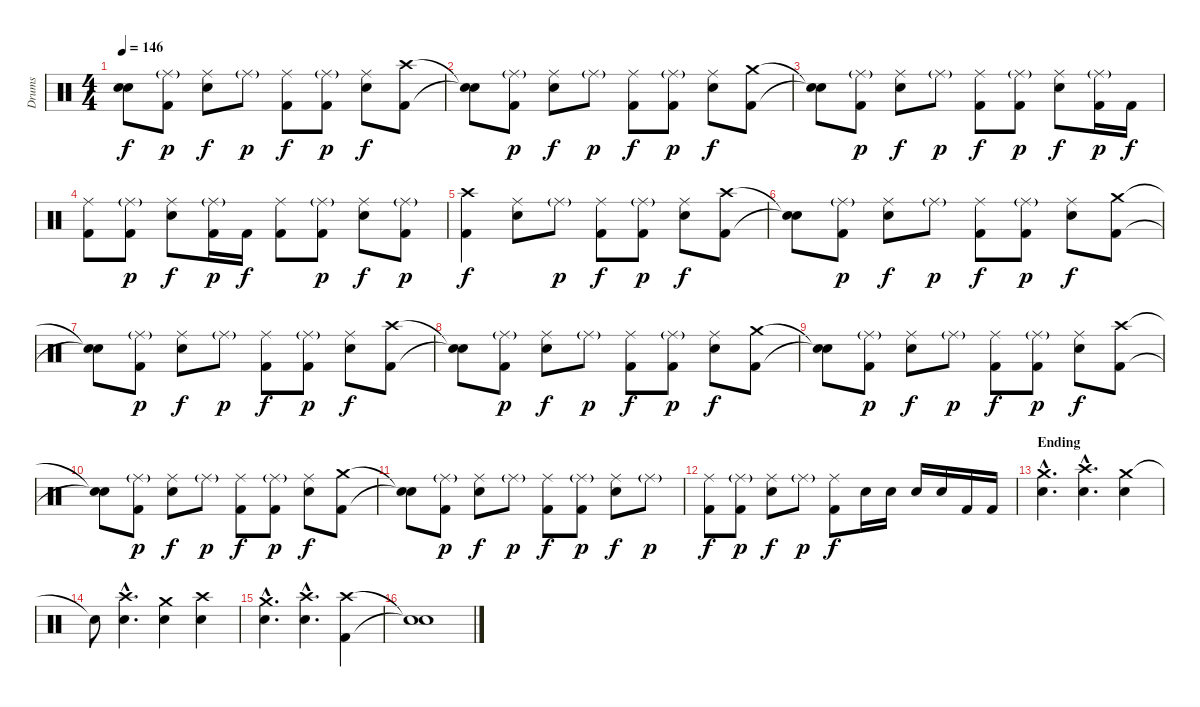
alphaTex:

\track ("Drums" "Drums") {instrument percussion}
\staff {score}
\articulation defaults
\ts (4 4)
\tempo 146
\clef neutral
\ks c
("Snare (hit)"{t} "Snare (hit)"{t}).8{dy f} ("Ride (middle)"{g} "Kick (hit) 2").8{dy p} ("Ride (middle)" "Snare (hit) 2").8{dy f} "Ride (middle)"{g}.8{dy p} ("Ride (middle)" "Kick (hit) 2").8{dy f} ("Ride (middle)"{g} "Kick (hit) 2").8{dy p} ("Ride (middle)" "Snare (hit) 2").8{dy f} ("Crash high (hit)" "Kick (hit) 2").8 |
("Snare (hit)"{t} "Snare (hit)"{t}).8 ("Ride (middle)"{g} "Kick (hit) 2").8{dy p} ("Ride (middle)" "Snare (hit) 2").8{dy f} "Ride (middle)"{g}.8{dy p} ("Ride (middle)" "Kick (hit) 2").8{dy f} ("Ride (middle)"{g} "Kick (hit) 2").8{dy p} ("Ride (middle)" "Snare (hit) 2").8{dy f} ("Crash medium (hit)" "Kick (hit) 2").8 |
("Snare (hit)"{t} "Snare (hit)"{t}).8 ("Ride (middle)"{g} "Kick (hit) 2").8{dy p} ("Ride (middle)" "Snare (hit) 2").8{dy f} "Ride (middle)"{g}.8{dy p} ("Ride (middle)" "Kick (hit) 2").8{dy f} ("Ride (middle)"{g} "Kick (hit) 2").8{dy p} ("Ride (middle)" "Snare (hit) 2").8{dy f} ("Ride (middle)"{g} "Kick (hit) 2").16{dy p} "Kick (hit) 2".16{dy f} |
("Ride (middle)" "Kick (hit) 2").8 ("Ride (middle)"{g} "Kick (hit) 2").8{dy p} ("Ride (middle)" "Snare (hit) 2").8{dy f} ("Ride (middle)"{g} "Kick (hit) 2").16{dy p} "Kick (hit) 2".16{dy f} ("Ride (middle)" "Kick (hit) 2").8 ("Ride (middle)"{g} "Kick (hit) 2").8{dy p} ("Ride (middle)" "Snare (hit) 2").8{dy f} ("Ride (middle)"{g} "Kick (hit) 2").8{dy p} |
("Crash high (hit)" "Kick (hit) 2").4{dy f} ("Ride (middle)" "Snare (hit) 2").8 "Ride (middle)"{g}.8{dy p} ("Ride (middle)" "Kick (hit) 2").8{dy f} ("Ride (middle)"{g} "Kick (hit) 2").8{dy p} ("Ride (middle)" "Snare (hit) 2").8{dy f} ("Crash high (hit)" "Kick (hit) 2").8 |
("Snare (hit)"{t} "Snare (hit)"{t}).8 ("Ride (middle)"{g} "Kick (hit) 2").8{dy p} ("Ride (middle)" "Snare (hit) 2").8{dy f} "Ride (middle)"{g}.8{dy p} ("Ride (middle)" "Kick (hit) 2").8{dy f} ("Ride (middle)"{g} "Kick (hit) 2").8{dy p} ("Ride (middle)" "Snare (hit) 2").8{dy f} ("Crash medium (hit)" "Kick (hit) 2").8 |
("Snare (hit)"{t} "Snare (hit)"{t}).8 ("Ride (middle)"{g} "Kick (hit) 2").8{dy p} ("Ride (middle)" "Snare (hit) 2").8{dy f} "Ride (middle)"{g}.8{dy p} ("Ride (middle)" "Kick (hit) 2").8{dy f} ("Ride (middle)"{g} "Kick (hit) 2").8{dy p} ("Ride (middle)" "Snare (hit) 2").8{dy f} ("Crash high (hit)" "Kick (hit) 2").8 |
("Snare (hit)"{t} "Snare (hit)"{t}).8 ("Ride (middle)"{g} "Kick (hit) 2").8{dy p} ("Ride (middle)" "Snare (hit) 2").8{dy f} "Ride (middle)"{g}.8{dy p} ("Ride (middle)" "Kick (hit) 2").8{dy f} ("Ride (middle)"{g} "Kick (hit) 2").8{dy p} ("Ride (middle)" "Snare (hit) 2").8{dy f} ("Crash medium (hit)" "Kick (hit) 2").8 |
("Snare (hit)"{t} "Snare (hit)"{t}).8 ("Ride (middle)"{g} "Kick (hit) 2").8{dy p} ("Ride (middle)" "Snare (hit) 2").8{dy f} "Ride (middle)"{g}.8{dy p} ("Ride (middle)" "Kick (hit) 2").8{dy f} ("Ride (middle)"{g} "Kick (hit) 2").8{dy p} ("Ride (middle)" "Snare (hit) 2").8{dy f} ("Crash high (hit)" "Kick (hit) 2").8 |
("Snare (hit)"{t} "Snare (hit)"{t}).8 ("Ride (middle)"{g} "Kick (hit) 2").8{dy p} ("Ride (middle)" "Snare (hit) 2").8{dy f} "Ride (middle)"{g}.8{dy p} ("Ride (middle)" "Kick (hit) 2").8{dy f} ("Ride (middle)"{g} "Kick (hit) 2").8{dy p} ("Ride (middle)" "Snare (hit) 2").8{dy f} ("Crash medium (hit)" "Kick (hit) 2").8 |
("Snare (hit)"{t} "Snare (hit)"{t}).8 ("Ride (middle)"{g} "Kick (hit) 2").8{dy p} ("Ride (middle)" "Snare (hit) 2").8{dy f} "Ride (middle)"{g}.8{dy p} ("Ride (middle)" "Kick (hit) 2").8{dy f} ("Ride (middle)"{g} "Kick (hit) 2").8{dy p} ("Ride (middle)" "Snare (hit) 2").8{dy f} "Ride (middle)"{g}.8{dy p} |
("Ride (middle)" "Kick (hit) 2").8{dy f} ("Ride (middle)"{g} "Kick (hit) 2").8{dy p} ("Ride (middle)" "Snare (hit) 2").8{dy f} "Ride (middle)"{g}.8{dy p} ("Ride (middle)" "Kick (hit) 2").8{dy f} "Snare (hit) 2".16 "Snare (hit) 2".16 "Snare (hit) 2".16 "Snare (hit) 2".16 "Kick (hit) 2".16 "Kick (hit) 2".16 |
\section ("" "Ending")
("Crash medium (hit)"{hac} "Snare (hit) 2"{hac}).4{d} ("Crash high (hit)"{hac} "Snare (hit) 2"{hac}).4{d} ("Crash medium (hit)" "Snare (hit) 2").4 |
"Snare (hit)"{t}.8 ("Crash high (hit)"{hac} "Snare (hit) 2"{hac}).4{d} ("Crash medium (hit)" "Snare (hit) 2").4 ("Crash high (hit)" "Snare (hit) 2").4 |
("Crash medium (hit)"{hac} "Snare (hit) 2"{hac}).4{d} ("Crash high (hit)"{hac} "Snare (hit) 2"{hac}).4{d} ("Crash high (hit)" "Kick (hit) 2").4 |
("Snare (hit)"{t} "Snare (hit)"{t}).1
